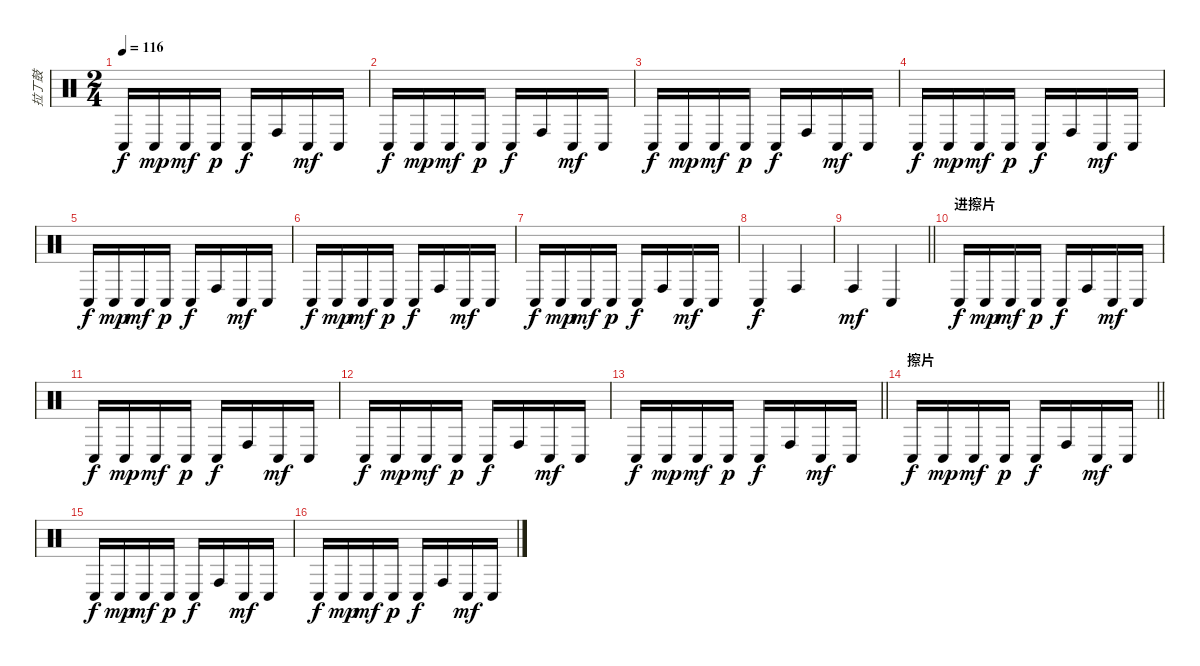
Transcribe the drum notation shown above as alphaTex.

\track ("拉丁鼓" "拉丁鼓") {instrument percussion}
\staff {score}
\articulation defaults
\ts (2 4)
\tempo 116
\clef neutral
\ks c "Conga low (hit)".16{dy f} "Conga low (hit)".16{dy mp} "Conga low (hit)".16{dy mf} "Conga low (hit)".16{dy p} "Conga low (hit)".16{dy f} "Conga high (hit)".16 "Conga low (hit)".16{dy mf} "Conga low (hit)".16
|
"Conga low (hit)".16{dy f} "Conga low (hit)".16{dy mp} "Conga low (hit)".16{dy mf} "Conga low (hit)".16{dy p} "Conga low (hit)".16{dy f} "Conga high (hit)".16 "Conga low (hit)".16{dy mf} "Conga low (hit)".16 |
"Conga low (hit)".16{dy f} "Conga low (hit)".16{dy mp} "Conga low (hit)".16{dy mf} "Conga low (hit)".16{dy p} "Conga low (hit)".16{dy f} "Conga high (hit)".16 "Conga low (hit)".16{dy mf} "Conga low (hit)".16 |
"Conga low (hit)".16{dy f} "Conga low (hit)".16{dy mp} "Conga low (hit)".16{dy mf} "Conga low (hit)".16{dy p} "Conga low (hit)".16{dy f} "Conga high (hit)".16 "Conga low (hit)".16{dy mf} "Conga low (hit)".16 |
"Conga low (hit)".16{dy f} "Conga low (hit)".16{dy mp} "Conga low (hit)".16{dy mf} "Conga low (hit)".16{dy p} "Conga low (hit)".16{dy f} "Conga high (hit)".16 "Conga low (hit)".16{dy mf} "Conga low (hit)".16 |
"Conga low (hit)".16{dy f} "Conga low (hit)".16{dy mp} "Conga low (hit)".16{dy mf} "Conga low (hit)".16{dy p} "Conga low (hit)".16{dy f} "Conga high (hit)".16 "Conga low (hit)".16{dy mf} "Conga low (hit)".16 |
"Conga low (hit)".16{dy f} "Conga low (hit)".16{dy mp} "Conga low (hit)".16{dy mf} "Conga low (hit)".16{dy p} "Conga low (hit)".16{dy f} "Conga high (hit)".16 "Conga low (hit)".16{dy mf} "Conga low (hit)".16 |
"Conga low (hit)".4{dy f} "Conga high (hit)".4 |
\barLineRight lightlight "Conga high (hit)".4{dy mf} "Conga low (hit)".4
|
\section ("" "进擦片")
"Conga low (hit)".16{dy f} "Conga low (hit)".16{dy mp} "Conga low (hit)".16{dy mf} "Conga low (hit)".16{dy p} "Conga low (hit)".16{dy f} "Conga high (hit)".16 "Conga low (hit)".16{dy mf} "Conga low (hit)".16 |
"Conga low (hit)".16{dy f} "Conga low (hit)".16{dy mp} "Conga low (hit)".16{dy mf} "Conga low (hit)".16{dy p} "Conga low (hit)".16{dy f} "Conga high (hit)".16 "Conga low (hit)".16{dy mf} "Conga low (hit)".16 |
"Conga low (hit)".16{dy f} "Conga low (hit)".16{dy mp} "Conga low (hit)".16{dy mf} "Conga low (hit)".16{dy p} "Conga low (hit)".16{dy f} "Conga high (hit)".16 "Conga low (hit)".16{dy mf} "Conga low (hit)".16 |
\barLineRight lightlight "Conga low (hit)".16{dy f} "Conga low (hit)".16{dy mp} "Conga low (hit)".16{dy mf} "Conga low (hit)".16{dy p} "Conga low (hit)".16{dy f} "Conga high (hit)".16 "Conga low (hit)".16{dy mf} "Conga low (hit)".16
|
\section ("" "擦片")
\barLineRight lightlight "Conga low (hit)".16{dy f} "Conga low (hit)".16{dy mp} "Conga low (hit)".16{dy mf} "Conga low (hit)".16{dy p} "Conga low (hit)".16{dy f} "Conga high (hit)".16 "Conga low (hit)".16{dy mf} "Conga low (hit)".16
|
"Conga low (hit)".16{dy f} "Conga low (hit)".16{dy mp} "Conga low (hit)".16{dy mf} "Conga low (hit)".16{dy p} "Conga low (hit)".16{dy f} "Conga high (hit)".16 "Conga low (hit)".16{dy mf} "Conga low (hit)".16 |
"Conga low (hit)".16{dy f} "Conga low (hit)".16{dy mp} "Conga low (hit)".16{dy mf} "Conga low (hit)".16{dy p} "Conga low (hit)".16{dy f} "Conga high (hit)".16 "Conga low (hit)".16{dy mf} "Conga low (hit)".16
